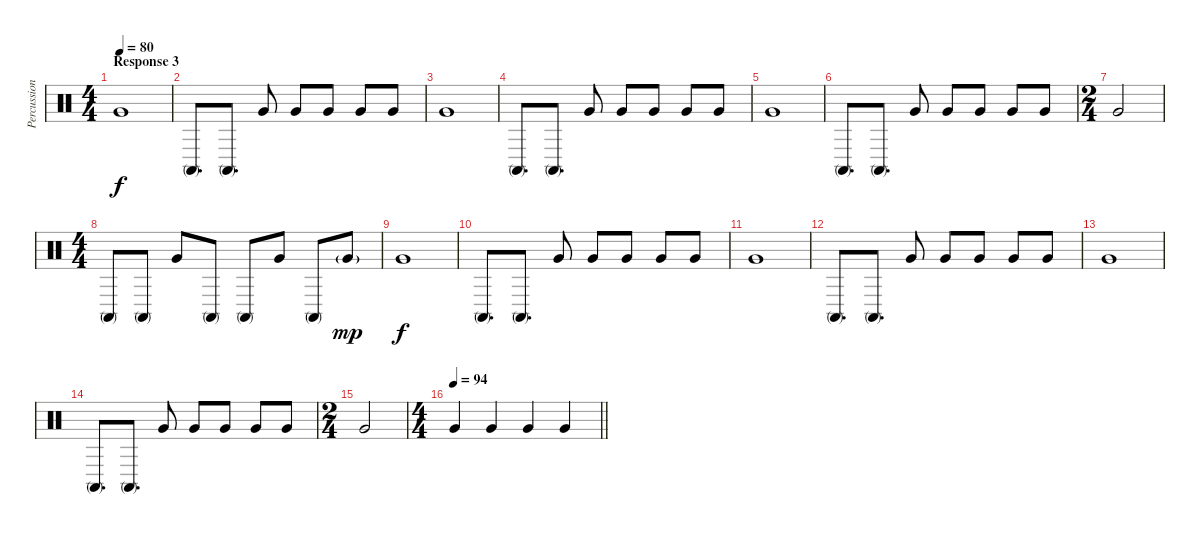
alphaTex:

\track ("Percussion" "Percussion") {instrument percussion}
\staff {score}
\articulation defaults
\ts (4 4)
\section ("" "Response 3")
\tempo 80
\clef neutral
\ks c "Very Low Tom (hit)".1{dy f}
|
"Conga high (mute)".8{d} "Conga high (mute)".8{d} "Very Low Tom (hit)".8 "Very Low Tom (hit)".8 "Very Low Tom (hit)".8 "Very Low Tom (hit)".8 "Very Low Tom (hit)".8 |
"Very Low Tom (hit)".1 |
"Conga high (mute)".8{d} "Conga high (mute)".8{d} "Very Low Tom (hit)".8 "Very Low Tom (hit)".8 "Very Low Tom (hit)".8 "Very Low Tom (hit)".8 "Very Low Tom (hit)".8 |
"Very Low Tom (hit)".1 |
"Conga high (mute)".8{d} "Conga high (mute)".8{d} "Very Low Tom (hit)".8 "Very Low Tom (hit)".8 "Very Low Tom (hit)".8 "Very Low Tom (hit)".8 "Very Low Tom (hit)".8 |
\ts (2 4)
"Very Low Tom (hit)".2 |
\ts (4 4)
"Conga high (mute)".8 "Conga high (mute)".8 "Very Low Tom (hit)".8 "Conga high (mute)".8 "Conga high (mute)".8 "Very Low Tom (hit)".8 "Conga high (mute)".8 "Very Low Tom (hit)"{g}.8{dy mp} |
"Very Low Tom (hit)".1{dy f} |
"Conga high (mute)".8{d} "Conga high (mute)".8{d} "Very Low Tom (hit)".8 "Very Low Tom (hit)".8 "Very Low Tom (hit)".8 "Very Low Tom (hit)".8 "Very Low Tom (hit)".8 |
"Very Low Tom (hit)".1 |
"Conga high (mute)".8{d} "Conga high (mute)".8{d} "Very Low Tom (hit)".8 "Very Low Tom (hit)".8 "Very Low Tom (hit)".8 "Very Low Tom (hit)".8 "Very Low Tom (hit)".8 |
"Very Low Tom (hit)".1 |
"Conga high (mute)".8{d} "Conga high (mute)".8{d} "Very Low Tom (hit)".8 "Very Low Tom (hit)".8 "Very Low Tom (hit)".8 "Very Low Tom (hit)".8 "Very Low Tom (hit)".8 |
\ts (2 4)
"Very Low Tom (hit)".2 |
\ts (4 4)
\tempo 94
\barLineRight lightlight "Very Low Tom (hit)".4 "Very Low Tom (hit)".4 "Very Low Tom (hit)".4 "Very Low Tom (hit)".4
